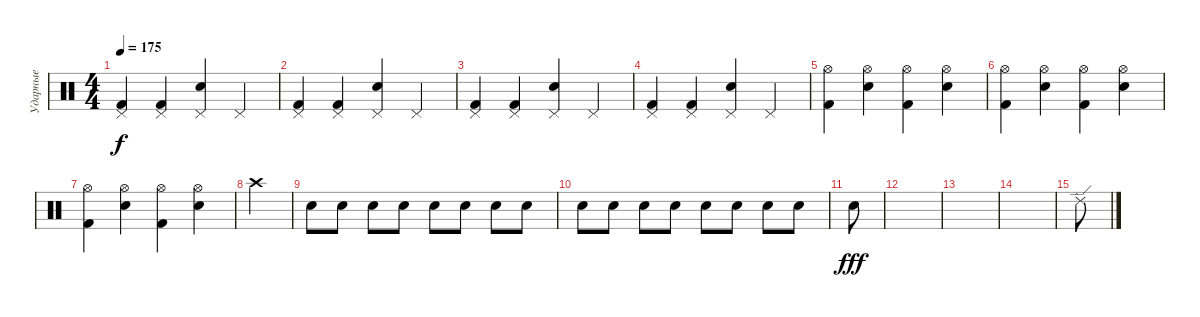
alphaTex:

\track ("Ударные" "Ударные") {instrument percussion}
\staff {score}
\articulation defaults
\ts (4 4)
\tempo 175
\clef neutral
\ks c
("Kick (hit) 2" "Pedal Hi-Hat (hit)").4{dy f} ("Kick (hit) 2" "Pedal Hi-Hat (hit)").4 ("Electric Snare (hit)" "Pedal Hi-Hat (hit)").4 "Pedal Hi-Hat (hit)".4 |
("Kick (hit) 2" "Pedal Hi-Hat (hit)").4 ("Kick (hit) 2" "Pedal Hi-Hat (hit)").4 ("Electric Snare (hit)" "Pedal Hi-Hat (hit)").4 "Pedal Hi-Hat (hit)".4 |
("Kick (hit) 2" "Pedal Hi-Hat (hit)").4 ("Kick (hit) 2" "Pedal Hi-Hat (hit)").4 ("Electric Snare (hit)" "Pedal Hi-Hat (hit)").4 "Pedal Hi-Hat (hit)".4 |
("Kick (hit) 2" "Pedal Hi-Hat (hit)").4 ("Kick (hit) 2" "Pedal Hi-Hat (hit)").4 ("Electric Snare (hit)" "Pedal Hi-Hat (hit)").4 "Pedal Hi-Hat (hit)".4 |
("Kick (hit) 2" "Hi-Hat (open)").4 ("Electric Snare (hit)" "Hi-Hat (open)").4 ("Kick (hit) 2" "Hi-Hat (open)").4 ("Electric Snare (hit)" "Hi-Hat (open)").4 |
("Kick (hit) 2" "Hi-Hat (open)").4 ("Electric Snare (hit)" "Hi-Hat (open)").4 ("Kick (hit) 2" "Hi-Hat (open)").4 ("Electric Snare (hit)" "Hi-Hat (open)").4 |
("Kick (hit) 2" "Hi-Hat (open)").4 ("Electric Snare (hit)" "Hi-Hat (open)").4 ("Kick (hit) 2" "Hi-Hat (open)").4 ("Electric Snare (hit)" "Hi-Hat (open)").4 |
"Crash high (hit)".4 |
"Electric Snare (hit)".8 "Electric Snare (hit)".8 "Electric Snare (hit)".8 "Electric Snare (hit)".8 "Electric Snare (hit)".8 "Electric Snare (hit)".8 "Electric Snare (hit)".8 "Electric Snare (hit)".8 |
"Electric Snare (hit)".8 "Electric Snare (hit)".8 "Electric Snare (hit)".8 "Electric Snare (hit)".8 "Electric Snare (hit)".8 "Electric Snare (hit)".8 "Electric Snare (hit)".8 "Electric Snare (hit)".8 |
"Snare (hit) 2".8{dy fff} |
|
|
|
"Ride (edge) 2".8
